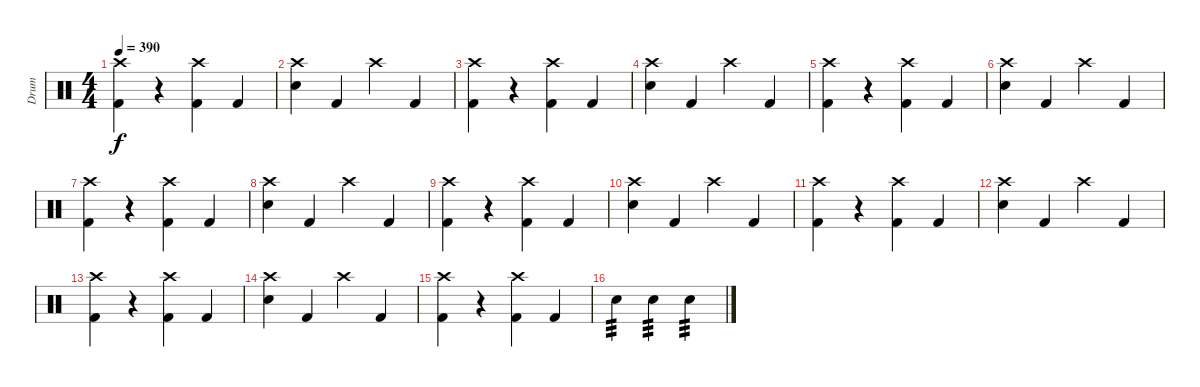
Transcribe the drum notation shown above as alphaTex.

\track ("Drum" "Drum") {instrument percussion}
\staff {score}
\articulation defaults
\ts (4 4)
\tempo 390
\clef neutral
\ks c
("Crash high (hit)" "Kick (hit) 2").4{dy f} r.4 ("Crash high (hit)" "Kick (hit) 2").4 "Kick (hit) 2".4 |
("Crash high (hit)" "Electric Snare (hit)").4 "Kick (hit) 2".4 "Crash high (hit)".4 "Kick (hit) 2".4 |
("Crash high (hit)" "Kick (hit) 2").4 r.4 ("Crash high (hit)" "Kick (hit) 2").4 "Kick (hit) 2".4 |
("Crash high (hit)" "Electric Snare (hit)").4 "Kick (hit) 2".4 "Crash high (hit)".4 "Kick (hit) 2".4 |
("Crash high (hit)" "Kick (hit) 2").4 r.4 ("Crash high (hit)" "Kick (hit) 2").4 "Kick (hit) 2".4 |
("Crash high (hit)" "Electric Snare (hit)").4 "Kick (hit) 2".4 "Crash high (hit)".4 "Kick (hit) 2".4 |
("Crash high (hit)" "Kick (hit) 2").4 r.4 ("Crash high (hit)" "Kick (hit) 2").4 "Kick (hit) 2".4 |
("Crash high (hit)" "Electric Snare (hit)").4 "Kick (hit) 2".4 "Crash high (hit)".4 "Kick (hit) 2".4 |
("Crash high (hit)" "Kick (hit) 2").4 r.4 ("Crash high (hit)" "Kick (hit) 2").4 "Kick (hit) 2".4 |
("Crash high (hit)" "Electric Snare (hit)").4 "Kick (hit) 2".4 "Crash high (hit)".4 "Kick (hit) 2".4 |
("Crash high (hit)" "Kick (hit) 2").4 r.4 ("Crash high (hit)" "Kick (hit) 2").4 "Kick (hit) 2".4 |
("Crash high (hit)" "Electric Snare (hit)").4 "Kick (hit) 2".4 "Crash high (hit)".4 "Kick (hit) 2".4 |
("Crash high (hit)" "Kick (hit) 2").4 r.4 ("Crash high (hit)" "Kick (hit) 2").4 "Kick (hit) 2".4 |
("Crash high (hit)" "Electric Snare (hit)").4 "Kick (hit) 2".4 "Crash high (hit)".4 "Kick (hit) 2".4 |
("Crash high (hit)" "Kick (hit) 2").4 r.4 ("Crash high (hit)" "Kick (hit) 2").4 "Kick (hit) 2".4 |
"Electric Snare (hit)".4{tp 3} "Electric Snare (hit)".4{tp 3} "Electric Snare (hit)".4{tp 3}
